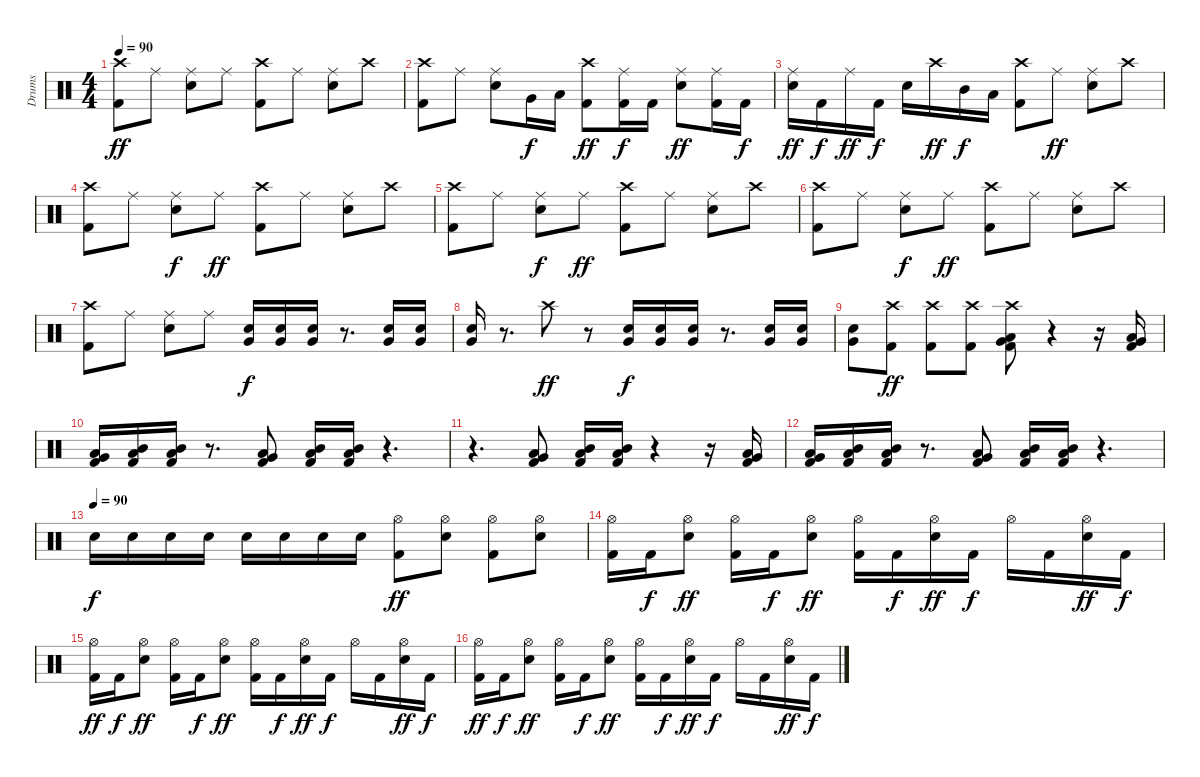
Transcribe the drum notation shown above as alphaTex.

\track ("Drums" "Drums") {instrument percussion}
\staff {score}
\articulation defaults
\ts (4 4)
\tempo 90
\clef neutral
\ks c
("Crash high (hit)" "Kick (hit) 2").8{dy ff} "Ride (middle)".8 ("Ride (middle)" "Electric Snare (hit)").8 "Ride (middle)".8 ("Crash high (hit)" "Kick (hit) 2").8 "Ride (middle)".8 ("Ride (middle)" "Electric Snare (hit)").8 "Crash high (hit)".8 |
("Crash high (hit)" "Kick (hit) 2").8 "Ride (middle)".8 ("Ride (middle)" "Electric Snare (hit)").8 "Very Low Tom (hit)".16{dy f} "Low Floor Tom (hit)".16 ("Crash high (hit)" "Kick (hit) 2").8{dy ff} ("Ride (middle)" "Kick (hit) 2").16{dy f} "Kick (hit) 2".16 ("Ride (middle)" "Electric Snare (hit)").8{dy ff} ("Ride (middle)" "Kick (hit) 2").16 "Kick (hit) 2".16{dy f} |
("Ride (middle)" "Electric Snare (hit)").16{dy ff} "Kick (hit) 2".16{dy f} "Ride (middle)".16{dy ff} "Kick (hit) 2".16{dy f} "Electric Snare (hit)".16 "Crash high (hit)".16{dy ff} "Mid Tom (hit)".16{dy f} "Low Tom (hit)".16 ("Crash high (hit)" "Kick (hit) 2").8 "Ride (middle)".8{dy ff} ("Ride (middle)" "Electric Snare (hit)").8 "Crash high (hit)".8 |
("Crash high (hit)" "Kick (hit) 2").8 "Ride (middle)".8 ("Ride (middle)" "Electric Snare (hit)").8{dy f} "Ride (middle)".8{dy ff} ("Crash high (hit)" "Kick (hit) 2").8 "Ride (middle)".8 ("Ride (middle)" "Electric Snare (hit)").8 "Crash high (hit)".8 |
("Crash high (hit)" "Kick (hit) 2").8 "Ride (middle)".8 ("Ride (middle)" "Electric Snare (hit)").8{dy f} "Ride (middle)".8{dy ff} ("Crash high (hit)" "Kick (hit) 2").8 "Ride (middle)".8 ("Ride (middle)" "Electric Snare (hit)").8 "Crash high (hit)".8 |
("Crash high (hit)" "Kick (hit) 2").8 "Ride (middle)".8 ("Ride (middle)" "Electric Snare (hit)").8{dy f} "Ride (middle)".8{dy ff} ("Crash high (hit)" "Kick (hit) 2").8 "Ride (middle)".8 ("Ride (middle)" "Electric Snare (hit)").8 "Crash high (hit)".8 |
("Crash high (hit)" "Kick (hit) 2").8 "Ride (middle)".8 ("Ride (middle)" "Electric Snare (hit)").8 "Ride (middle)".8 ("Very Low Tom (hit)" "Electric Snare (hit)").16{dy f} ("Very Low Tom (hit)" "Electric Snare (hit)").16 ("Very Low Tom (hit)" "Electric Snare (hit)").16 r.8{d} ("Very Low Tom (hit)" "Electric Snare (hit)").16 ("Very Low Tom (hit)" "Electric Snare (hit)").16 |
("Very Low Tom (hit)" "Electric Snare (hit)").16 r.8{d} "Crash high (hit)".8{dy ff} r.8 ("Very Low Tom (hit)" "Electric Snare (hit)").16{dy f} ("Very Low Tom (hit)" "Electric Snare (hit)").16 ("Very Low Tom (hit)" "Electric Snare (hit)").16 r.8{d} ("Very Low Tom (hit)" "Electric Snare (hit)").16 ("Very Low Tom (hit)" "Electric Snare (hit)").16 |
("Very Low Tom (hit)" "Electric Snare (hit)").8 ("Crash high (hit)" "Kick (hit) 2").8{dy ff} ("Crash high (hit)" "Kick (hit) 2").8 ("Crash high (hit)" "Kick (hit) 2").8 ("Crash high (hit)" "Very Low Tom (hit)" "Low Floor Tom (hit)" "Kick (hit) 2").8 r.4 r.16 ("Low Tom (hit)" "Very Low Tom (hit)" "Kick (hit) 2").16 |
("Low Tom (hit)" "Very Low Tom (hit)" "Kick (hit) 2").16 ("Mid Tom (hit)" "Low Tom (hit)" "Kick (hit) 2").16 ("Mid Tom (hit)" "Low Tom (hit)" "Kick (hit) 2").16 r.8{d} ("Low Tom (hit)" "Very Low Tom (hit)" "Kick (hit) 2").8 ("Mid Tom (hit)" "Low Tom (hit)" "Kick (hit) 2").16 ("Mid Tom (hit)" "Low Tom (hit)" "Kick (hit) 2").16 r.4{d} |
r.4{d} ("Low Tom (hit)" "Very Low Tom (hit)" "Kick (hit) 2").8 ("Mid Tom (hit)" "Low Tom (hit)" "Kick (hit) 2").16 ("Mid Tom (hit)" "Low Tom (hit)" "Kick (hit) 2").16 r.4 r.16 ("Low Tom (hit)" "Very Low Tom (hit)" "Kick (hit) 2").16 |
("Low Tom (hit)" "Very Low Tom (hit)" "Kick (hit) 2").16 ("Mid Tom (hit)" "Low Tom (hit)" "Kick (hit) 2").16 ("Mid Tom (hit)" "Low Tom (hit)" "Kick (hit) 2").16 r.8{d} ("Low Tom (hit)" "Very Low Tom (hit)" "Kick (hit) 2").8 ("Mid Tom (hit)" "Low Tom (hit)" "Kick (hit) 2").16 ("Mid Tom (hit)" "Low Tom (hit)" "Kick (hit) 2").16 r.4{d} |
\tempo (90)
"Electric Snare (hit)".16{dy f} "Electric Snare (hit)".16 "Electric Snare (hit)".16 "Electric Snare (hit)".16 "Electric Snare (hit)".16 "Electric Snare (hit)".16 "Electric Snare (hit)".16 "Electric Snare (hit)".16 ("Hi-Hat (open)" "Kick (hit) 2").8{dy ff} ("Hi-Hat (open)" "Electric Snare (hit)").8 ("Hi-Hat (open)" "Kick (hit) 2").8 ("Hi-Hat (open)" "Electric Snare (hit)").8 |
("Hi-Hat (open)" "Kick (hit) 2").16 "Kick (hit) 2".16{dy f} ("Hi-Hat (open)" "Electric Snare (hit)").8{dy ff} ("Hi-Hat (open)" "Kick (hit) 2").16 "Kick (hit) 2".16{dy f} ("Hi-Hat (open)" "Electric Snare (hit)").8{dy ff} ("Hi-Hat (open)" "Kick (hit) 2").16 "Kick (hit) 2".16{dy f} ("Hi-Hat (open)" "Electric Snare (hit)").16{dy ff} "Kick (hit) 2".16{dy f} "Hi-Hat (open)".16 "Kick (hit) 2".16 ("Hi-Hat (open)" "Electric Snare (hit)").16{dy ff} "Kick (hit) 2".16{dy f} |
("Hi-Hat (open)" "Kick (hit) 2").16{dy ff} "Kick (hit) 2".16{dy f} ("Hi-Hat (open)" "Electric Snare (hit)").8{dy ff} ("Hi-Hat (open)" "Kick (hit) 2").16 "Kick (hit) 2".16{dy f} ("Hi-Hat (open)" "Electric Snare (hit)").8{dy ff} ("Hi-Hat (open)" "Kick (hit) 2").16 "Kick (hit) 2".16{dy f} ("Hi-Hat (open)" "Electric Snare (hit)").16{dy ff} "Kick (hit) 2".16{dy f} "Hi-Hat (open)".16 "Kick (hit) 2".16 ("Hi-Hat (open)" "Electric Snare (hit)").16{dy ff} "Kick (hit) 2".16{dy f} |
("Hi-Hat (open)" "Kick (hit) 2").16{dy ff} "Kick (hit) 2".16{dy f} ("Hi-Hat (open)" "Electric Snare (hit)").8{dy ff} ("Hi-Hat (open)" "Kick (hit) 2").16 "Kick (hit) 2".16{dy f} ("Hi-Hat (open)" "Electric Snare (hit)").8{dy ff} ("Hi-Hat (open)" "Kick (hit) 2").16 "Kick (hit) 2".16{dy f} ("Hi-Hat (open)" "Electric Snare (hit)").16{dy ff} "Kick (hit) 2".16{dy f} "Hi-Hat (open)".16 "Kick (hit) 2".16 ("Hi-Hat (open)" "Electric Snare (hit)").16{dy ff} "Kick (hit) 2".16{dy f}
